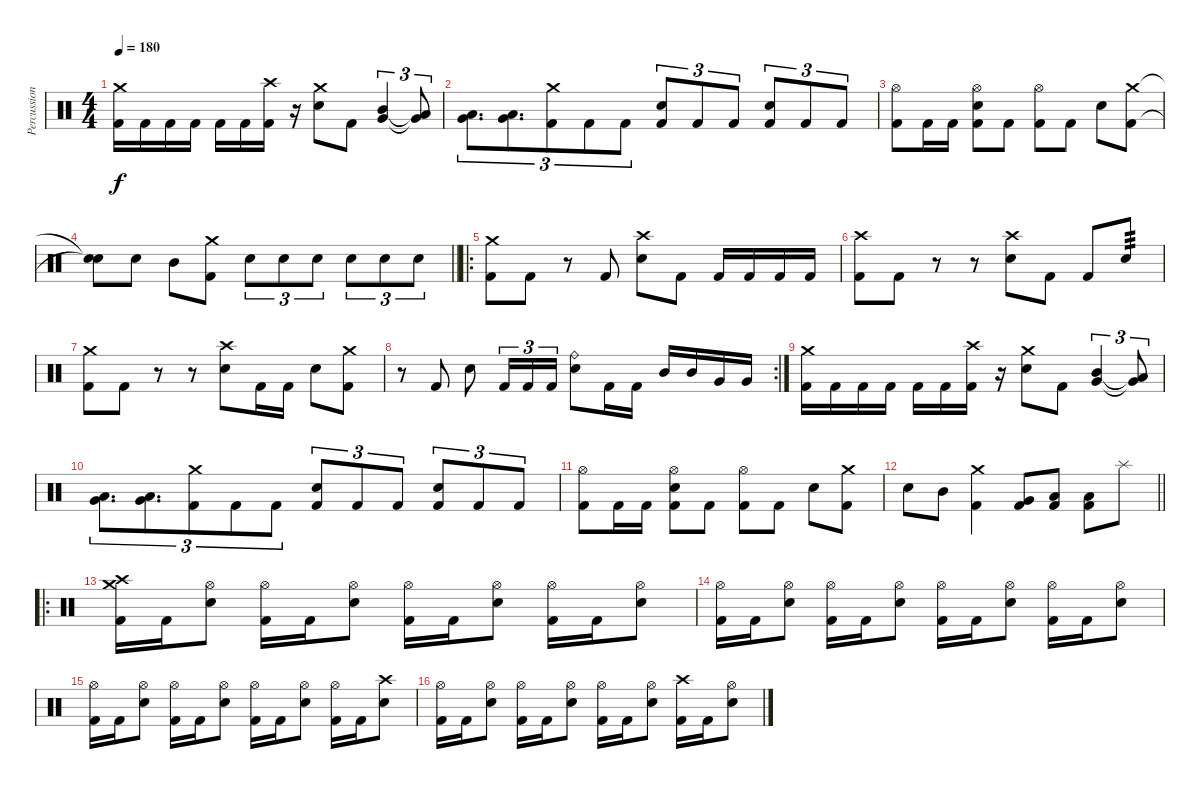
\track ("Percussion" "Percussion") {instrument percussion}
\staff {score}
\articulation defaults
\ts (4 4)
\tempo 180
\clef neutral
\ks c
("Crash medium (hit)" "Kick (hit) 2").16{dy f} "Kick (hit) 2".16 "Kick (hit) 2".16 "Kick (hit) 2".16 "Kick (hit) 2".16 "Kick (hit) 2".16 ("Crash high (hit)" "Kick (hit) 2").16 r.16 ("Crash medium (hit)" "Electric Snare (hit)").8 "Kick (hit) 2".8 ("Mid Tom (hit)" "Very Low Tom (hit)").4{tu (3 2)} ("Low Tom (hit)"{t} "Very Low Tom (hit)"{t}).8{tu (3 2)} |
("Low Tom (hit)" "Very Low Tom (hit)").8{d tu (3 2)} ("Very Low Tom (hit)" "Low Floor Tom (hit)").8{d tu (3 2)} ("Crash medium (hit)" "Kick (hit) 2").8{tu (3 2)} "Kick (hit) 2".8{tu (3 2)} "Kick (hit) 2".8{tu (3 2)} ("Electric Snare (hit)" "Kick (hit) 2").8{tu (3 2)} "Kick (hit) 2".8{tu (3 2)} "Kick (hit) 2".8{tu (3 2)} ("Electric Snare (hit)" "Kick (hit) 2").8{tu (3 2)} "Kick (hit) 2".8{tu (3 2)} "Kick (hit) 2".8{tu (3 2)} |
("Hi-Hat (open)" "Kick (hit) 2").8 "Kick (hit) 2".16 "Kick (hit) 2".16 ("Hi-Hat (open)" "Electric Snare (hit)" "Kick (hit) 2").8 "Kick (hit) 2".8 ("Hi-Hat (open)" "Kick (hit) 2").8 "Kick (hit) 2".8 "Electric Snare (hit)".8 ("Crash medium (hit)" "Kick (hit) 2").8 |
\barLineRight lightlight
("Snare (hit)"{t} "Snare (hit)"{t}).8 "Electric Snare (hit)".8 "Mid Tom (hit)".8 ("Crash medium (hit)" "Kick (hit) 2").8 "Electric Snare (hit)".8{tu (3 2)} "Electric Snare (hit)".8{tu (3 2)} "Electric Snare (hit)".8{tu (3 2)} "Electric Snare (hit)".8{tu (3 2)} "Electric Snare (hit)".8{tu (3 2)} "Electric Snare (hit)".8{tu (3 2)} |
\ro
("Crash medium (hit)" "Kick (hit) 2").8 "Kick (hit) 2".8 r.8 "Kick (hit) 2".8 ("Crash high (hit)" "Electric Snare (hit)").8 "Kick (hit) 2".8 "Kick (hit) 2".16 "Kick (hit) 2".16 "Kick (hit) 2".16 "Kick (hit) 2".16 |
("Crash high (hit)" "Kick (hit) 2").8 "Kick (hit) 2".8 r.8 r.8 ("Crash high (hit)" "Electric Snare (hit)").8 "Kick (hit) 2".8 "Kick (hit) 2".8 "Electric Snare (hit)".8{tp 3} |
("Crash medium (hit)" "Kick (hit) 2").8 "Kick (hit) 2".8 r.8 r.8 ("Crash high (hit)" "Electric Snare (hit)").8 "Kick (hit) 2".16 "Kick (hit) 2".16 "Electric Snare (hit)".8 ("Crash medium (hit)" "Kick (hit) 2").8 |
\rc 2
r.8 "Kick (hit) 2".8 "Electric Snare (hit)".8 "Kick (hit) 2".16{tu (3 2)} "Kick (hit) 2".16{tu (3 2)} "Kick (hit) 2".16{tu (3 2)} ("Ride (bell)" "Electric Snare (hit)").8 "Kick (hit) 2".16 "Kick (hit) 2".16 "Mid Tom (hit)".16 "Mid Tom (hit)".16 "Very Low Tom (hit)".16 "Very Low Tom (hit)".16 |
("Crash medium (hit)" "Kick (hit) 2").16 "Kick (hit) 2".16 "Kick (hit) 2".16 "Kick (hit) 2".16 "Kick (hit) 2".16 "Kick (hit) 2".16 ("Crash high (hit)" "Kick (hit) 2").16 r.16 ("Crash medium (hit)" "Electric Snare (hit)").8 "Kick (hit) 2".8 ("Mid Tom (hit)" "Very Low Tom (hit)").4{tu (3 2)} ("Low Tom (hit)"{t} "Very Low Tom (hit)"{t}).8{tu (3 2)} |
("Low Tom (hit)" "Very Low Tom (hit)").8{d tu (3 2)} ("Very Low Tom (hit)" "Low Floor Tom (hit)").8{d tu (3 2)} ("Crash medium (hit)" "Kick (hit) 2").8{tu (3 2)} "Kick (hit) 2".8{tu (3 2)} "Kick (hit) 2".8{tu (3 2)} ("Electric Snare (hit)" "Kick (hit) 2").8{tu (3 2)} "Kick (hit) 2".8{tu (3 2)} "Kick (hit) 2".8{tu (3 2)} ("Electric Snare (hit)" "Kick (hit) 2").8{tu (3 2)} "Kick (hit) 2".8{tu (3 2)} "Kick (hit) 2".8{tu (3 2)} |
("Hi-Hat (open)" "Kick (hit) 2").8 "Kick (hit) 2".16 "Kick (hit) 2".16 ("Hi-Hat (open)" "Electric Snare (hit)" "Kick (hit) 2").8 "Kick (hit) 2".8 ("Hi-Hat (open)" "Kick (hit) 2").8 "Kick (hit) 2".8 "Electric Snare (hit)".8 ("Crash medium (hit)" "Kick (hit) 2").8 |
\barLineRight lightlight "Electric Snare (hit)".8 "Mid Tom (hit)".8
("Crash medium (hit)" "Kick (hit) 2").4 ("Very Low Tom (hit)" "Kick (hit) 2").8 ("Low Floor Tom (hit)" "Kick (hit) 2").8 ("Low Floor Tom (hit)" "Kick (hit) 2").8 "Splash (hit)".8 |
\ro
("Crash medium (hit)" "Crash high (hit)" "Kick (hit) 2").16 "Kick (hit) 2".16 ("Hi-Hat (open)" "Electric Snare (hit)").8 ("Hi-Hat (open)" "Kick (hit) 2").16 "Kick (hit) 2".16 ("Hi-Hat (open)" "Electric Snare (hit)").8 ("Hi-Hat (open)" "Kick (hit) 2").16 "Kick (hit) 2".16 ("Hi-Hat (open)" "Electric Snare (hit)").8 ("Hi-Hat (open)" "Kick (hit) 2").16 "Kick (hit) 2".16 ("Hi-Hat (open)" "Electric Snare (hit)").8 |
("Hi-Hat (open)" "Kick (hit) 2").16 "Kick (hit) 2".16 ("Hi-Hat (open)" "Electric Snare (hit)").8 ("Hi-Hat (open)" "Kick (hit) 2").16 "Kick (hit) 2".16 ("Hi-Hat (open)" "Electric Snare (hit)").8 ("Hi-Hat (open)" "Kick (hit) 2").16 "Kick (hit) 2".16 ("Hi-Hat (open)" "Electric Snare (hit)").8 ("Hi-Hat (open)" "Kick (hit) 2").16 "Kick (hit) 2".16 ("Hi-Hat (open)" "Electric Snare (hit)").8 |
("Hi-Hat (open)" "Kick (hit) 2").16 "Kick (hit) 2".16 ("Hi-Hat (open)" "Electric Snare (hit)").8 ("Hi-Hat (open)" "Kick (hit) 2").16 "Kick (hit) 2".16 ("Hi-Hat (open)" "Electric Snare (hit)").8 ("Hi-Hat (open)" "Kick (hit) 2").16 "Kick (hit) 2".16 ("Hi-Hat (open)" "Electric Snare (hit)").8 ("Hi-Hat (open)" "Kick (hit) 2").16 "Kick (hit) 2".16 ("Crash high (hit)" "Electric Snare (hit)").8 |
("Hi-Hat (open)" "Kick (hit) 2").16 "Kick (hit) 2".16 ("Hi-Hat (open)" "Electric Snare (hit)").8 ("Hi-Hat (open)" "Kick (hit) 2").16 "Kick (hit) 2".16 ("Hi-Hat (open)" "Electric Snare (hit)").8 ("Hi-Hat (open)" "Kick (hit) 2").16 "Kick (hit) 2".16 ("Hi-Hat (open)" "Electric Snare (hit)").8 ("Crash high (hit)" "Kick (hit) 2").16 "Kick (hit) 2".16 ("Hi-Hat (open)" "Electric Snare (hit)").8
